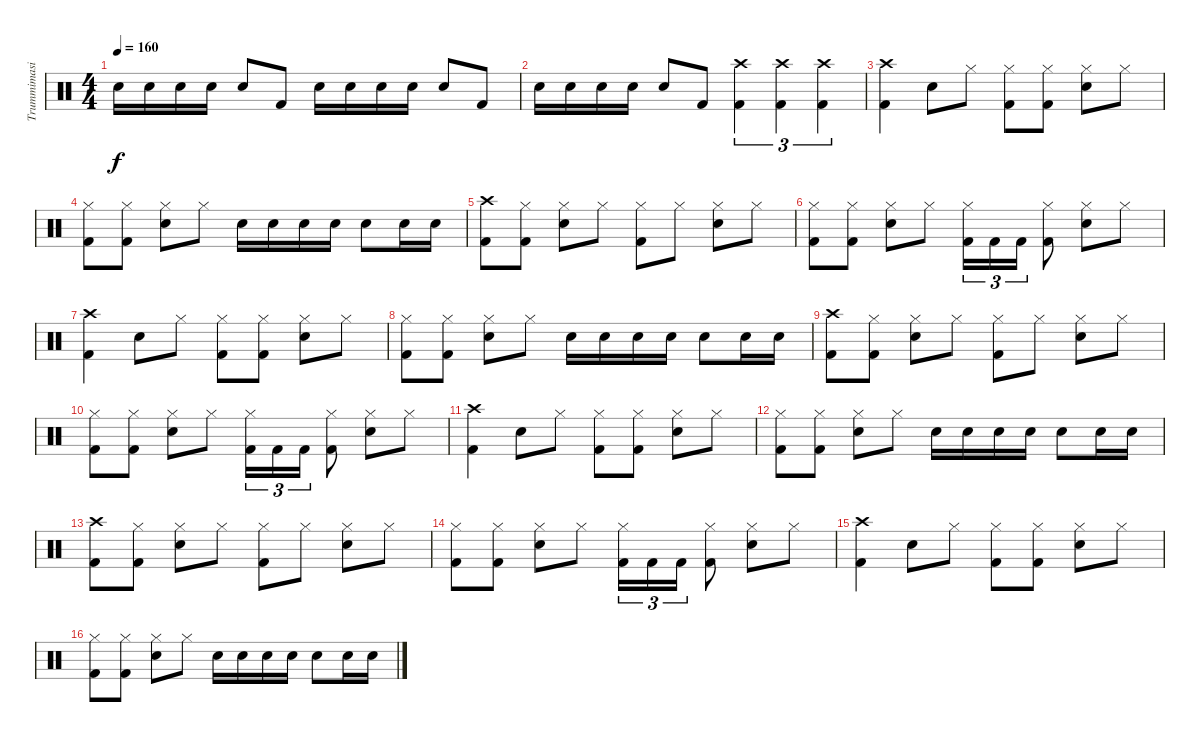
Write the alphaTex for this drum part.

\track ("Trummimasin" "Trummimasi") {instrument percussion}
\staff {score}
\articulation defaults
\ts (4 4)
\tempo 160
\clef neutral
\ks c "Snare (hit) 2".16{dy f} "Snare (hit) 2".16 "Snare (hit) 2".16 "Snare (hit) 2".16 "Snare (hit) 2".8 "Kick (hit) 2".8 "Snare (hit) 2".16 "Snare (hit) 2".16 "Snare (hit) 2".16 "Snare (hit) 2".16 "Snare (hit) 2".8 "Kick (hit) 2".8
|
"Snare (hit) 2".16 "Snare (hit) 2".16 "Snare (hit) 2".16 "Snare (hit) 2".16 "Snare (hit) 2".8 "Kick (hit) 2".8 ("Crash high (hit)" "Kick (hit) 2").4{tu (3 2)} ("Crash high (hit)" "Kick (hit) 2").4{tu (3 2)} ("Crash high (hit)" "Kick (hit) 2").4{tu (3 2)} |
("Crash high (hit)" "Kick (hit) 2").4 "Snare (hit) 2".8 "Hi-Hat (closed)".8 ("Hi-Hat (closed)" "Kick (hit) 2").8 ("Hi-Hat (closed)" "Kick (hit) 2").8 ("Hi-Hat (closed)" "Snare (hit) 2").8 "Hi-Hat (closed)".8 |
("Hi-Hat (closed)" "Kick (hit) 2").8 ("Hi-Hat (closed)" "Kick (hit) 2").8 ("Hi-Hat (closed)" "Snare (hit) 2").8 "Hi-Hat (closed)".8 "Snare (hit) 2".16 "Snare (hit) 2".16 "Snare (hit) 2".16 "Snare (hit) 2".16 "Snare (hit) 2".8 "Snare (hit) 2".16 "Snare (hit) 2".16 |
("Crash high (hit)" "Kick (hit) 2").8 ("Hi-Hat (closed)" "Kick (hit) 2").8 ("Hi-Hat (closed)" "Snare (hit) 2").8 "Hi-Hat (closed)".8 ("Hi-Hat (closed)" "Kick (hit) 2").8 "Hi-Hat (closed)".8 ("Hi-Hat (closed)" "Snare (hit) 2").8 "Hi-Hat (closed)".8 |
("Hi-Hat (closed)" "Kick (hit) 2").8 ("Hi-Hat (closed)" "Kick (hit) 2").8 ("Hi-Hat (closed)" "Snare (hit) 2").8 "Hi-Hat (closed)".8 ("Hi-Hat (closed)" "Kick (hit) 2").16{tu (3 2)} "Kick (hit) 2".16{tu (3 2)} "Kick (hit) 2".16{tu (3 2)} ("Hi-Hat (closed)" "Kick (hit) 2").8 ("Hi-Hat (closed)" "Snare (hit) 2").8 "Hi-Hat (closed)".8 |
("Crash high (hit)" "Kick (hit) 2").4 "Snare (hit) 2".8 "Hi-Hat (closed)".8 ("Hi-Hat (closed)" "Kick (hit) 2").8 ("Hi-Hat (closed)" "Kick (hit) 2").8 ("Hi-Hat (closed)" "Snare (hit) 2").8 "Hi-Hat (closed)".8 |
("Hi-Hat (closed)" "Kick (hit) 2").8 ("Hi-Hat (closed)" "Kick (hit) 2").8 ("Hi-Hat (closed)" "Snare (hit) 2").8 "Hi-Hat (closed)".8 "Snare (hit) 2".16 "Snare (hit) 2".16 "Snare (hit) 2".16 "Snare (hit) 2".16 "Snare (hit) 2".8 "Snare (hit) 2".16 "Snare (hit) 2".16 |
("Crash high (hit)" "Kick (hit) 2").8 ("Hi-Hat (closed)" "Kick (hit) 2").8 ("Hi-Hat (closed)" "Snare (hit) 2").8 "Hi-Hat (closed)".8 ("Hi-Hat (closed)" "Kick (hit) 2").8 "Hi-Hat (closed)".8 ("Hi-Hat (closed)" "Snare (hit) 2").8 "Hi-Hat (closed)".8 |
("Hi-Hat (closed)" "Kick (hit) 2").8 ("Hi-Hat (closed)" "Kick (hit) 2").8 ("Hi-Hat (closed)" "Snare (hit) 2").8 "Hi-Hat (closed)".8 ("Hi-Hat (closed)" "Kick (hit) 2").16{tu (3 2)} "Kick (hit) 2".16{tu (3 2)} "Kick (hit) 2".16{tu (3 2)} ("Hi-Hat (closed)" "Kick (hit) 2").8 ("Hi-Hat (closed)" "Snare (hit) 2").8 "Hi-Hat (closed)".8 |
("Crash high (hit)" "Kick (hit) 2").4 "Snare (hit) 2".8 "Hi-Hat (closed)".8 ("Hi-Hat (closed)" "Kick (hit) 2").8 ("Hi-Hat (closed)" "Kick (hit) 2").8 ("Hi-Hat (closed)" "Snare (hit) 2").8 "Hi-Hat (closed)".8 |
("Hi-Hat (closed)" "Kick (hit) 2").8 ("Hi-Hat (closed)" "Kick (hit) 2").8 ("Hi-Hat (closed)" "Snare (hit) 2").8 "Hi-Hat (closed)".8 "Snare (hit) 2".16 "Snare (hit) 2".16 "Snare (hit) 2".16 "Snare (hit) 2".16 "Snare (hit) 2".8 "Snare (hit) 2".16 "Snare (hit) 2".16 |
("Crash high (hit)" "Kick (hit) 2").8 ("Hi-Hat (closed)" "Kick (hit) 2").8 ("Hi-Hat (closed)" "Snare (hit) 2").8 "Hi-Hat (closed)".8 ("Hi-Hat (closed)" "Kick (hit) 2").8 "Hi-Hat (closed)".8 ("Hi-Hat (closed)" "Snare (hit) 2").8 "Hi-Hat (closed)".8 |
("Hi-Hat (closed)" "Kick (hit) 2").8 ("Hi-Hat (closed)" "Kick (hit) 2").8 ("Hi-Hat (closed)" "Snare (hit) 2").8 "Hi-Hat (closed)".8 ("Hi-Hat (closed)" "Kick (hit) 2").16{tu (3 2)} "Kick (hit) 2".16{tu (3 2)} "Kick (hit) 2".16{tu (3 2)} ("Hi-Hat (closed)" "Kick (hit) 2").8 ("Hi-Hat (closed)" "Snare (hit) 2").8 "Hi-Hat (closed)".8 |
("Crash high (hit)" "Kick (hit) 2").4 "Snare (hit) 2".8 "Hi-Hat (closed)".8 ("Hi-Hat (closed)" "Kick (hit) 2").8 ("Hi-Hat (closed)" "Kick (hit) 2").8 ("Hi-Hat (closed)" "Snare (hit) 2").8 "Hi-Hat (closed)".8 |
("Hi-Hat (closed)" "Kick (hit) 2").8 ("Hi-Hat (closed)" "Kick (hit) 2").8 ("Hi-Hat (closed)" "Snare (hit) 2").8 "Hi-Hat (closed)".8 "Snare (hit) 2".16 "Snare (hit) 2".16 "Snare (hit) 2".16 "Snare (hit) 2".16 "Snare (hit) 2".8 "Snare (hit) 2".16 "Snare (hit) 2".16
